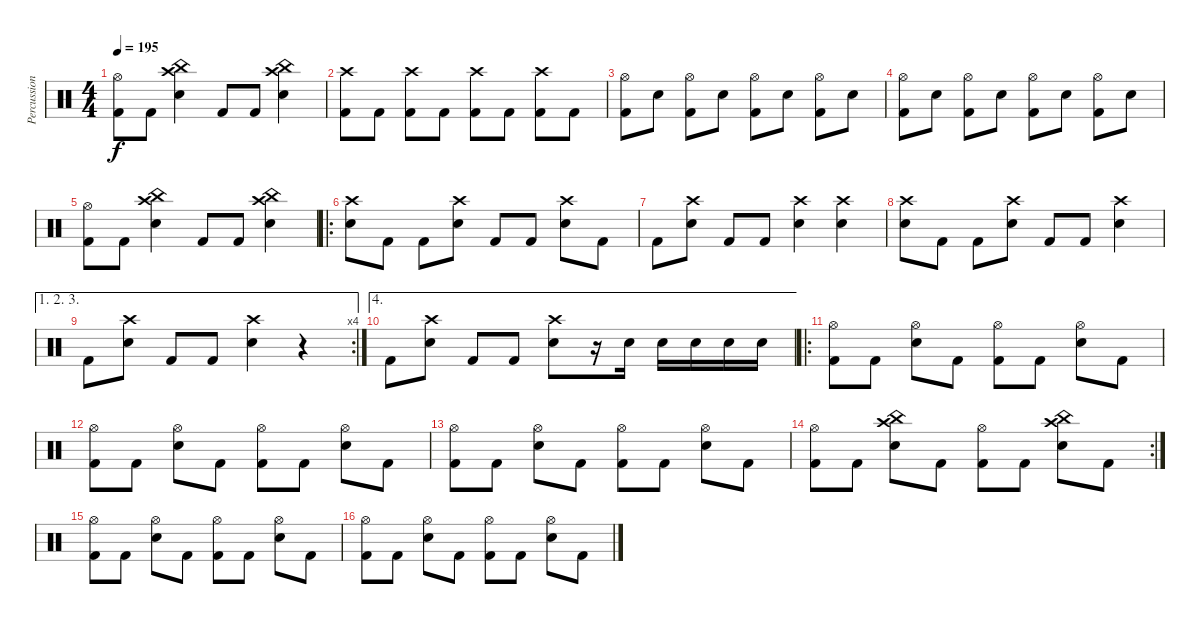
\track ("Percussion" "Percussion") {instrument percussion}
\staff {score}
\articulation defaults
\ts (4 4)
\tempo 195
\clef neutral
\ks c
("Hi-Hat (open)" "Kick (hit) 2").8{dy f} "Kick (hit) 2".8 ("Crash high (hit)" "China (hit)" "Snare (hit) 2").4 "Kick (hit) 2".8 "Kick (hit) 2".8 ("Crash high (hit)" "China (hit)" "Snare (hit) 2").4 |
("Crash high (hit)" "Kick (hit) 2").8 "Kick (hit) 2".8 ("Crash high (hit)" "Kick (hit) 2").8 "Kick (hit) 2".8 ("Crash high (hit)" "Kick (hit) 2").8 "Kick (hit) 2".8 ("Crash high (hit)" "Kick (hit) 2").8 "Kick (hit) 2".8 |
("Hi-Hat (open)" "Kick (hit) 2").8 "Snare (hit) 2".8 ("Hi-Hat (open)" "Kick (hit) 2").8 "Snare (hit) 2".8 ("Hi-Hat (open)" "Kick (hit) 2").8 "Snare (hit) 2".8 ("Hi-Hat (open)" "Kick (hit) 2").8 "Snare (hit) 2".8 |
("Hi-Hat (open)" "Kick (hit) 2").8 "Snare (hit) 2".8 ("Hi-Hat (open)" "Kick (hit) 2").8 "Snare (hit) 2".8 ("Hi-Hat (open)" "Kick (hit) 2").8 "Snare (hit) 2".8 ("Hi-Hat (open)" "Kick (hit) 2").8 "Snare (hit) 2".8 |
("Hi-Hat (open)" "Kick (hit) 2").8 "Kick (hit) 2".8 ("Crash high (hit)" "China (hit)" "Snare (hit) 2").4 "Kick (hit) 2".8 "Kick (hit) 2".8 ("Crash high (hit)" "China (hit)" "Snare (hit) 2").4 |
\ro
\section ("" "")
("Crash high (hit)" "Snare (hit) 2").8 "Kick (hit) 2".8 "Kick (hit) 2".8 ("Crash high (hit)" "Snare (hit) 2").8 "Kick (hit) 2".8 "Kick (hit) 2".8 ("Crash high (hit)" "Snare (hit) 2").8 "Kick (hit) 2".8 |
"Kick (hit) 2".8 ("Crash high (hit)" "Snare (hit) 2").8 "Kick (hit) 2".8 "Kick (hit) 2".8 ("Crash high (hit)" "Snare (hit) 2").4 ("Crash high (hit)" "Snare (hit) 2").4 |
("Crash high (hit)" "Snare (hit) 2").8 "Kick (hit) 2".8 "Kick (hit) 2".8 ("Crash high (hit)" "Snare (hit) 2").8 "Kick (hit) 2".8 "Kick (hit) 2".8 ("Crash high (hit)" "Snare (hit) 2").4 |
\ae (1 2 3)
\rc 4 "Kick (hit) 2".8
("Crash high (hit)" "Snare (hit) 2").8 "Kick (hit) 2".8 "Kick (hit) 2".8 ("Crash high (hit)" "Snare (hit) 2").4 r.4 |
\ae 4 "Kick (hit) 2".8
("Crash high (hit)" "Snare (hit) 2").8 "Kick (hit) 2".8 "Kick (hit) 2".8 ("Crash high (hit)" "Snare (hit) 2").8 r.16 "Snare (hit) 2".16 "Snare (hit) 2".16 "Snare (hit) 2".16 "Snare (hit) 2".16 "Snare (hit) 2".16 |
\ro
\section ("" "")
("Hi-Hat (open)" "Kick (hit) 2").8 "Kick (hit) 2".8 ("Hi-Hat (open)" "Snare (hit) 2").8 "Kick (hit) 2".8 ("Hi-Hat (open)" "Kick (hit) 2").8 "Kick (hit) 2".8 ("Hi-Hat (open)" "Snare (hit) 2").8 "Kick (hit) 2".8 |
("Hi-Hat (open)" "Kick (hit) 2").8 "Kick (hit) 2".8 ("Hi-Hat (open)" "Snare (hit) 2").8 "Kick (hit) 2".8 ("Hi-Hat (open)" "Kick (hit) 2").8 "Kick (hit) 2".8 ("Hi-Hat (open)" "Snare (hit) 2").8 "Kick (hit) 2".8 |
("Hi-Hat (open)" "Kick (hit) 2").8 "Kick (hit) 2".8 ("Hi-Hat (open)" "Snare (hit) 2").8 "Kick (hit) 2".8 ("Hi-Hat (open)" "Kick (hit) 2").8 "Kick (hit) 2".8 ("Hi-Hat (open)" "Snare (hit) 2").8 "Kick (hit) 2".8 |
\rc 2
("Hi-Hat (open)" "Kick (hit) 2").8 "Kick (hit) 2".8 ("Crash high (hit)" "China (hit)" "Snare (hit) 2").8 "Kick (hit) 2".8 ("Hi-Hat (open)" "Kick (hit) 2").8 "Kick (hit) 2".8 ("Crash high (hit)" "China (hit)" "Snare (hit) 2").8 "Kick (hit) 2".8 |
("Hi-Hat (open)" "Kick (hit) 2").8 "Kick (hit) 2".8 ("Hi-Hat (open)" "Snare (hit) 2").8 "Kick (hit) 2".8 ("Hi-Hat (open)" "Kick (hit) 2").8 "Kick (hit) 2".8 ("Hi-Hat (open)" "Snare (hit) 2").8 "Kick (hit) 2".8 |
("Hi-Hat (open)" "Kick (hit) 2").8 "Kick (hit) 2".8 ("Hi-Hat (open)" "Snare (hit) 2").8 "Kick (hit) 2".8 ("Hi-Hat (open)" "Kick (hit) 2").8 "Kick (hit) 2".8 ("Hi-Hat (open)" "Snare (hit) 2").8 "Kick (hit) 2".8
